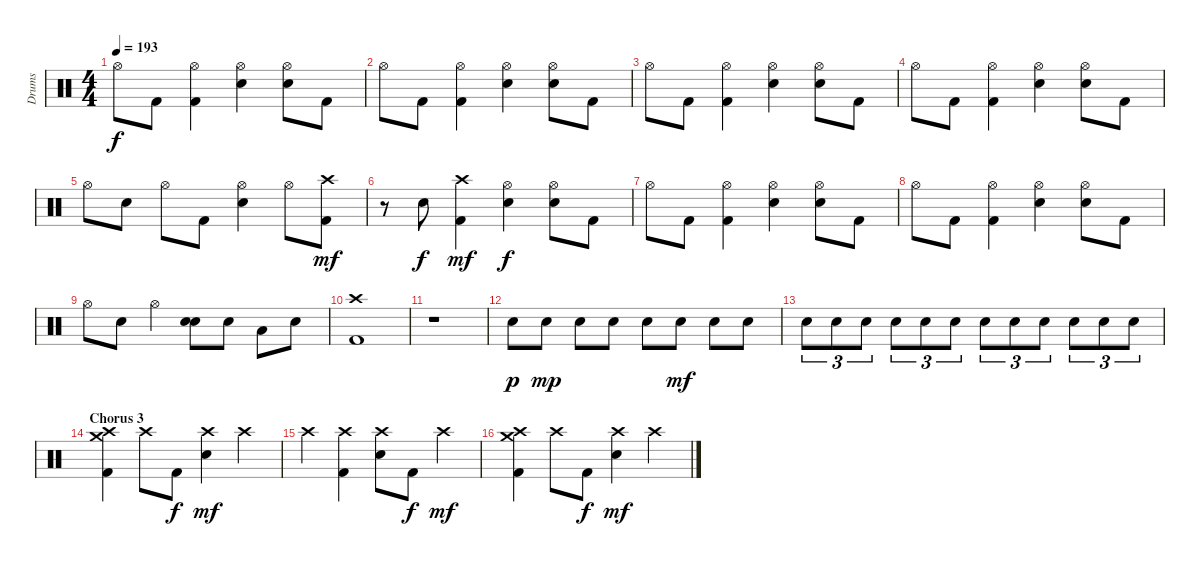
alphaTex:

\track ("Drums" "Drums") {instrument percussion}
\staff {score}
\articulation defaults
\ts (4 4)
\tempo 193
\clef neutral
\ks c "Hi-Hat (open)".8{dy f} "Kick (hit) 2".8
("Hi-Hat (open)" "Kick (hit) 2").4 ("Hi-Hat (open)" "Electric Snare (hit)").4 ("Hi-Hat (open)" "Electric Snare (hit)").8 "Kick (hit) 2".8 |
"Hi-Hat (open)".8 "Kick (hit) 2".8 ("Hi-Hat (open)" "Kick (hit) 2").4 ("Hi-Hat (open)" "Electric Snare (hit)").4 ("Hi-Hat (open)" "Electric Snare (hit)").8 "Kick (hit) 2".8 |
"Hi-Hat (open)".8 "Kick (hit) 2".8 ("Hi-Hat (open)" "Kick (hit) 2").4 ("Hi-Hat (open)" "Electric Snare (hit)").4 ("Hi-Hat (open)" "Electric Snare (hit)").8 "Kick (hit) 2".8 |
"Hi-Hat (open)".8 "Kick (hit) 2".8 ("Hi-Hat (open)" "Kick (hit) 2").4 ("Hi-Hat (open)" "Electric Snare (hit)").4 ("Hi-Hat (open)" "Electric Snare (hit)").8 "Kick (hit) 2".8 |
"Hi-Hat (open)".8 "Electric Snare (hit)".8 "Hi-Hat (open)".8 "Kick (hit) 2".8 ("Hi-Hat (open)" "Electric Snare (hit)").4 "Hi-Hat (open)".8 ("Crash high (hit)" "Kick (hit) 2").8{dy mf} |
r.8 "Electric Snare (hit)".8{dy f} ("Crash high (hit)" "Kick (hit) 2").4{dy mf} ("Hi-Hat (open)" "Electric Snare (hit)").4{dy f} ("Hi-Hat (open)" "Electric Snare (hit)").8 "Kick (hit) 2".8 |
"Hi-Hat (open)".8 "Kick (hit) 2".8 ("Hi-Hat (open)" "Kick (hit) 2").4 ("Hi-Hat (open)" "Electric Snare (hit)").4 ("Hi-Hat (open)" "Electric Snare (hit)").8 "Kick (hit) 2".8 |
"Hi-Hat (open)".8 "Kick (hit) 2".8 ("Hi-Hat (open)" "Kick (hit) 2").4 ("Hi-Hat (open)" "Electric Snare (hit)").4 ("Hi-Hat (open)" "Electric Snare (hit)").8 "Kick (hit) 2".8 |
"Hi-Hat (open)".8 "Electric Snare (hit)".8 "Hi-Hat (open)".4 ("Electric Snare (hit)" "Electric Snare (hit)").8{bd 120} "Electric Snare (hit)".8 "Low Tom (hit)".8 "Electric Snare (hit)".8 |
("Crash high (hit)" "Kick (hit) 2").1 |
r.1 |
"Electric Snare (hit)".8{dy p} "Electric Snare (hit)".8{dy mp} "Electric Snare (hit)".8 "Electric Snare (hit)".8 "Electric Snare (hit)".8 "Electric Snare (hit)".8{dy mf} "Electric Snare (hit)".8 "Electric Snare (hit)".8 |
"Electric Snare (hit)".8{tu (3 2)} "Electric Snare (hit)".8{tu (3 2)} "Electric Snare (hit)".8{tu (3 2)} "Electric Snare (hit)".8{tu (3 2)} "Electric Snare (hit)".8{tu (3 2)} "Electric Snare (hit)".8{tu (3 2)} "Electric Snare (hit)".8{tu (3 2)} "Electric Snare (hit)".8{tu (3 2)} "Electric Snare (hit)".8{tu (3 2)} "Electric Snare (hit)".8{tu (3 2)} "Electric Snare (hit)".8{tu (3 2)} "Electric Snare (hit)".8{tu (3 2)} |
\section ("" "Chorus 3")
("Crash high (hit)" "Crash medium (hit)" "Kick (hit) 2").4 "Crash high (hit)".8 "Kick (hit) 2".8{dy f} ("Crash high (hit)" "Electric Snare (hit)").4{dy mf} "Crash high (hit)".4 |
"Crash high (hit)".4 ("Crash high (hit)" "Kick (hit) 2").4 ("Crash high (hit)" "Electric Snare (hit)").8 "Kick (hit) 2".8{dy f} "Crash high (hit)".4{dy mf} |
("Crash high (hit)" "Crash medium (hit)" "Kick (hit) 2").4 "Crash high (hit)".8 "Kick (hit) 2".8{dy f} ("Crash high (hit)" "Electric Snare (hit)").4{dy mf} "Crash high (hit)".4
